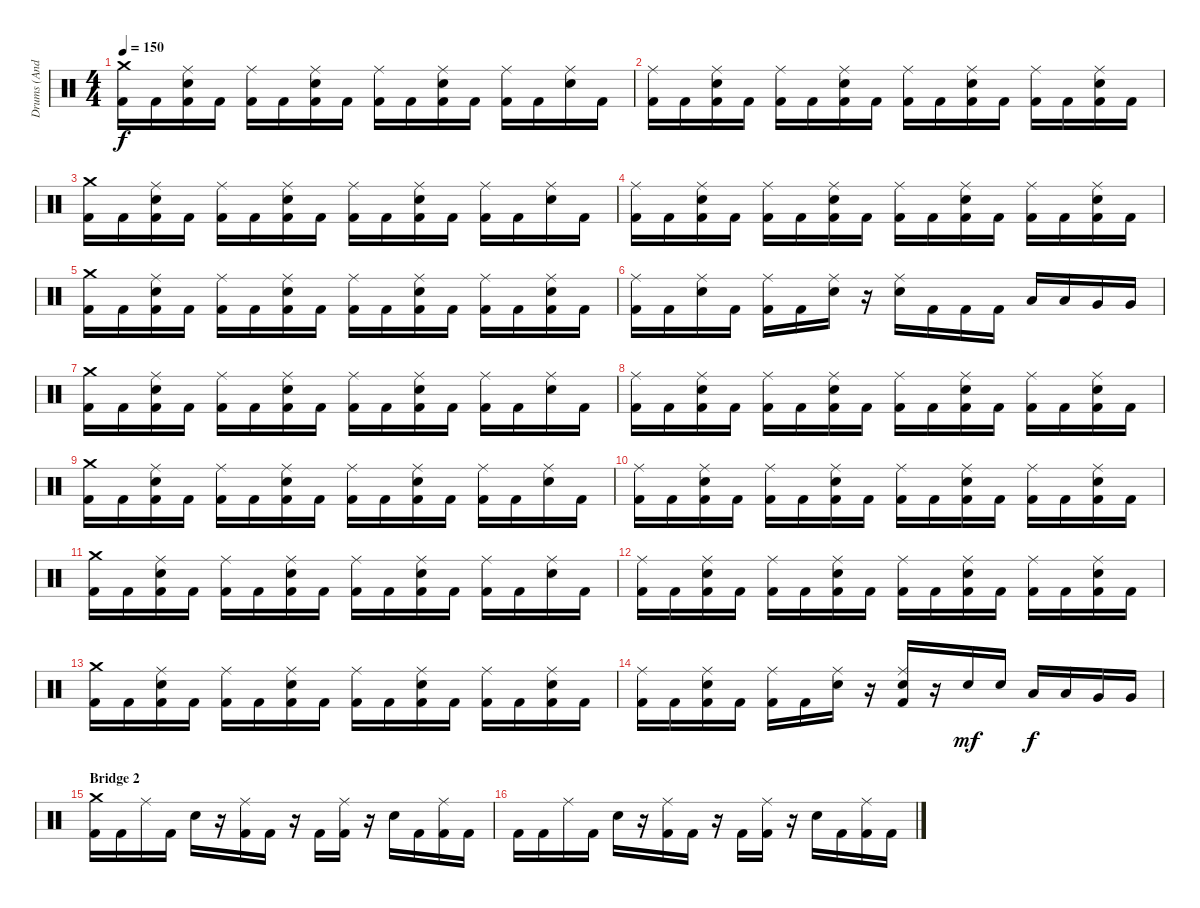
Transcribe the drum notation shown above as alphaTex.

\track ("Drums (Andy C)" "Drums (And") {instrument percussion}
\staff {score}
\articulation defaults
\ts (4 4)
\tempo 150
\clef neutral
\ks c
("Crash medium (hit)" "Kick (hit) 2").16{dy f} "Kick (hit) 2".16 ("Ride (middle)" "Kick (hit) 2" "Electric Snare (hit)").16 "Kick (hit) 2".16 ("Ride (middle)" "Kick (hit) 2").16 "Kick (hit) 2".16 ("Ride (middle)" "Kick (hit) 2" "Electric Snare (hit)").16 "Kick (hit) 2".16 ("Ride (middle)" "Kick (hit) 2").16 "Kick (hit) 2".16 ("Ride (middle)" "Kick (hit) 2" "Electric Snare (hit)").16 "Kick (hit) 2".16 ("Ride (middle)" "Kick (hit) 2").16 "Kick (hit) 2".16 ("Ride (middle)" "Electric Snare (hit)").16 "Kick (hit) 2".16 |
("Ride (middle)" "Kick (hit) 2").16 "Kick (hit) 2".16 ("Ride (middle)" "Kick (hit) 2" "Electric Snare (hit)").16 "Kick (hit) 2".16 ("Ride (middle)" "Kick (hit) 2").16 "Kick (hit) 2".16 ("Ride (middle)" "Kick (hit) 2" "Electric Snare (hit)").16 "Kick (hit) 2".16 ("Ride (middle)" "Kick (hit) 2").16 "Kick (hit) 2".16 ("Ride (middle)" "Kick (hit) 2" "Electric Snare (hit)").16 "Kick (hit) 2".16 ("Ride (middle)" "Kick (hit) 2").16 "Kick (hit) 2".16 ("Ride (middle)" "Kick (hit) 2" "Electric Snare (hit)").16 "Kick (hit) 2".16 |
("Crash medium (hit)" "Kick (hit) 2").16 "Kick (hit) 2".16 ("Ride (middle)" "Kick (hit) 2" "Electric Snare (hit)").16 "Kick (hit) 2".16 ("Ride (middle)" "Kick (hit) 2").16 "Kick (hit) 2".16 ("Ride (middle)" "Kick (hit) 2" "Electric Snare (hit)").16 "Kick (hit) 2".16 ("Ride (middle)" "Kick (hit) 2").16 "Kick (hit) 2".16 ("Ride (middle)" "Kick (hit) 2" "Electric Snare (hit)").16 "Kick (hit) 2".16 ("Ride (middle)" "Kick (hit) 2").16 "Kick (hit) 2".16 ("Ride (middle)" "Electric Snare (hit)").16 "Kick (hit) 2".16 |
("Ride (middle)" "Kick (hit) 2").16 "Kick (hit) 2".16 ("Ride (middle)" "Kick (hit) 2" "Electric Snare (hit)").16 "Kick (hit) 2".16 ("Ride (middle)" "Kick (hit) 2").16 "Kick (hit) 2".16 ("Ride (middle)" "Kick (hit) 2" "Electric Snare (hit)").16 "Kick (hit) 2".16 ("Ride (middle)" "Kick (hit) 2").16 "Kick (hit) 2".16 ("Ride (middle)" "Kick (hit) 2" "Electric Snare (hit)").16 "Kick (hit) 2".16 ("Ride (middle)" "Kick (hit) 2").16 "Kick (hit) 2".16 ("Ride (middle)" "Kick (hit) 2" "Electric Snare (hit)").16 "Kick (hit) 2".16 |
("Crash medium (hit)" "Kick (hit) 2").16 "Kick (hit) 2".16 ("Ride (middle)" "Kick (hit) 2" "Electric Snare (hit)").16 "Kick (hit) 2".16 ("Ride (middle)" "Kick (hit) 2").16 "Kick (hit) 2".16 ("Ride (middle)" "Kick (hit) 2" "Electric Snare (hit)").16 "Kick (hit) 2".16 ("Ride (middle)" "Kick (hit) 2").16 "Kick (hit) 2".16 ("Ride (middle)" "Kick (hit) 2" "Electric Snare (hit)").16 "Kick (hit) 2".16 ("Ride (middle)" "Kick (hit) 2").16 "Kick (hit) 2".16 ("Ride (middle)" "Kick (hit) 2" "Electric Snare (hit)").16 "Kick (hit) 2".16 |
("Ride (middle)" "Kick (hit) 2").16 "Kick (hit) 2".16 ("Ride (middle)" "Electric Snare (hit)").16 "Kick (hit) 2".16 ("Ride (middle)" "Kick (hit) 2").16 "Kick (hit) 2".16 ("Ride (middle)" "Electric Snare (hit)").16 r.16 ("Ride (middle)" "Electric Snare (hit)").16 "Kick (hit) 2".16 "Kick (hit) 2".16 "Kick (hit) 2".16 "Low Tom (hit)".16 "Low Tom (hit)".16 "Very Low Tom (hit)".16 "Very Low Tom (hit)".16 |
("Crash medium (hit)" "Kick (hit) 2").16 "Kick (hit) 2".16 ("Ride (middle)" "Kick (hit) 2" "Electric Snare (hit)").16 "Kick (hit) 2".16 ("Ride (middle)" "Kick (hit) 2").16 "Kick (hit) 2".16 ("Ride (middle)" "Kick (hit) 2" "Electric Snare (hit)").16 "Kick (hit) 2".16 ("Ride (middle)" "Kick (hit) 2").16 "Kick (hit) 2".16 ("Ride (middle)" "Kick (hit) 2" "Electric Snare (hit)").16 "Kick (hit) 2".16 ("Ride (middle)" "Kick (hit) 2").16 "Kick (hit) 2".16 ("Ride (middle)" "Electric Snare (hit)").16 "Kick (hit) 2".16 |
("Ride (middle)" "Kick (hit) 2").16 "Kick (hit) 2".16 ("Ride (middle)" "Kick (hit) 2" "Electric Snare (hit)").16 "Kick (hit) 2".16 ("Ride (middle)" "Kick (hit) 2").16 "Kick (hit) 2".16 ("Ride (middle)" "Kick (hit) 2" "Electric Snare (hit)").16 "Kick (hit) 2".16 ("Ride (middle)" "Kick (hit) 2").16 "Kick (hit) 2".16 ("Ride (middle)" "Kick (hit) 2" "Electric Snare (hit)").16 "Kick (hit) 2".16 ("Ride (middle)" "Kick (hit) 2").16 "Kick (hit) 2".16 ("Ride (middle)" "Kick (hit) 2" "Electric Snare (hit)").16 "Kick (hit) 2".16 |
("Crash medium (hit)" "Kick (hit) 2").16 "Kick (hit) 2".16 ("Ride (middle)" "Kick (hit) 2" "Electric Snare (hit)").16 "Kick (hit) 2".16 ("Ride (middle)" "Kick (hit) 2").16 "Kick (hit) 2".16 ("Ride (middle)" "Kick (hit) 2" "Electric Snare (hit)").16 "Kick (hit) 2".16 ("Ride (middle)" "Kick (hit) 2").16 "Kick (hit) 2".16 ("Ride (middle)" "Kick (hit) 2" "Electric Snare (hit)").16 "Kick (hit) 2".16 ("Ride (middle)" "Kick (hit) 2").16 "Kick (hit) 2".16 ("Ride (middle)" "Electric Snare (hit)").16 "Kick (hit) 2".16 |
("Ride (middle)" "Kick (hit) 2").16 "Kick (hit) 2".16 ("Ride (middle)" "Kick (hit) 2" "Electric Snare (hit)").16 "Kick (hit) 2".16 ("Ride (middle)" "Kick (hit) 2").16 "Kick (hit) 2".16 ("Ride (middle)" "Kick (hit) 2" "Electric Snare (hit)").16 "Kick (hit) 2".16 ("Ride (middle)" "Kick (hit) 2").16 "Kick (hit) 2".16 ("Ride (middle)" "Kick (hit) 2" "Electric Snare (hit)").16 "Kick (hit) 2".16 ("Ride (middle)" "Kick (hit) 2").16 "Kick (hit) 2".16 ("Ride (middle)" "Kick (hit) 2" "Electric Snare (hit)").16 "Kick (hit) 2".16 |
("Crash medium (hit)" "Kick (hit) 2").16 "Kick (hit) 2".16 ("Ride (middle)" "Kick (hit) 2" "Electric Snare (hit)").16 "Kick (hit) 2".16 ("Ride (middle)" "Kick (hit) 2").16 "Kick (hit) 2".16 ("Ride (middle)" "Kick (hit) 2" "Electric Snare (hit)").16 "Kick (hit) 2".16 ("Ride (middle)" "Kick (hit) 2").16 "Kick (hit) 2".16 ("Ride (middle)" "Kick (hit) 2" "Electric Snare (hit)").16 "Kick (hit) 2".16 ("Ride (middle)" "Kick (hit) 2").16 "Kick (hit) 2".16 ("Ride (middle)" "Electric Snare (hit)").16 "Kick (hit) 2".16 |
("Ride (middle)" "Kick (hit) 2").16 "Kick (hit) 2".16 ("Ride (middle)" "Kick (hit) 2" "Electric Snare (hit)").16 "Kick (hit) 2".16 ("Ride (middle)" "Kick (hit) 2").16 "Kick (hit) 2".16 ("Ride (middle)" "Kick (hit) 2" "Electric Snare (hit)").16 "Kick (hit) 2".16 ("Ride (middle)" "Kick (hit) 2").16 "Kick (hit) 2".16 ("Ride (middle)" "Kick (hit) 2" "Electric Snare (hit)").16 "Kick (hit) 2".16 ("Ride (middle)" "Kick (hit) 2").16 "Kick (hit) 2".16 ("Ride (middle)" "Kick (hit) 2" "Electric Snare (hit)").16 "Kick (hit) 2".16 |
("Crash medium (hit)" "Kick (hit) 2").16 "Kick (hit) 2".16 ("Ride (middle)" "Kick (hit) 2" "Electric Snare (hit)").16 "Kick (hit) 2".16 ("Ride (middle)" "Kick (hit) 2").16 "Kick (hit) 2".16 ("Ride (middle)" "Kick (hit) 2" "Electric Snare (hit)").16 "Kick (hit) 2".16 ("Ride (middle)" "Kick (hit) 2").16 "Kick (hit) 2".16 ("Ride (middle)" "Kick (hit) 2" "Electric Snare (hit)").16 "Kick (hit) 2".16 ("Ride (middle)" "Kick (hit) 2").16 "Kick (hit) 2".16 ("Ride (middle)" "Kick (hit) 2" "Electric Snare (hit)").16 "Kick (hit) 2".16 |
("Ride (middle)" "Kick (hit) 2").16 "Kick (hit) 2".16 ("Ride (middle)" "Kick (hit) 2" "Electric Snare (hit)").16 "Kick (hit) 2".16 ("Ride (middle)" "Kick (hit) 2").16 "Kick (hit) 2".16 ("Ride (middle)" "Electric Snare (hit)").16 r.16 ("Ride (middle)" "Kick (hit) 2" "Electric Snare (hit)").16 r.16 "Electric Snare (hit)".16{dy mf} "Electric Snare (hit)".16 "Low Tom (hit)".16{dy f} "Low Tom (hit)".16 "Very Low Tom (hit)".16 "Very Low Tom (hit)".16 |
\section ("" "Bridge 2")
("Crash medium (hit)" "Kick (hit) 2").16 "Kick (hit) 2".16 "Ride (middle)".16 "Kick (hit) 2".16 "Electric Snare (hit)".16 r.16 ("Ride (middle)" "Kick (hit) 2").16 "Kick (hit) 2".16 r.16 "Kick (hit) 2".16 ("Ride (middle)" "Kick (hit) 2").16 r.16 "Electric Snare (hit)".16 "Kick (hit) 2".16 ("Ride (middle)" "Kick (hit) 2").16 "Kick (hit) 2".16 |
"Kick (hit) 2".16 "Kick (hit) 2".16 "Ride (middle)".16 "Kick (hit) 2".16 "Electric Snare (hit)".16 r.16 ("Ride (middle)" "Kick (hit) 2").16 "Kick (hit) 2".16 r.16 "Kick (hit) 2".16 ("Ride (middle)" "Kick (hit) 2").16 r.16 "Electric Snare (hit)".16 "Kick (hit) 2".16 ("Ride (middle)" "Kick (hit) 2").16 "Kick (hit) 2".16
